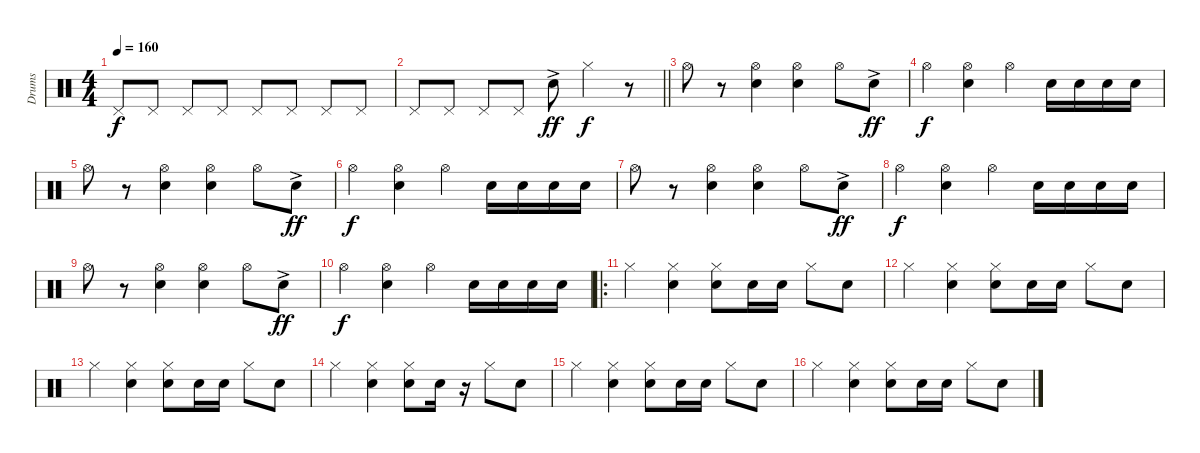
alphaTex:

\track ("Drums" "Drums") {instrument percussion}
\staff {score}
\articulation defaults
\ts (4 4)
\tempo 160
\clef neutral
\ks c "Pedal Hi-Hat (hit)".8{dy f} "Pedal Hi-Hat (hit)".8 "Pedal Hi-Hat (hit)".8 "Pedal Hi-Hat (hit)".8 "Pedal Hi-Hat (hit)".8 "Pedal Hi-Hat (hit)".8 "Pedal Hi-Hat (hit)".8 "Pedal Hi-Hat (hit)".8
|
\barLineRight lightlight "Pedal Hi-Hat (hit)".8 "Pedal Hi-Hat (hit)".8 "Pedal Hi-Hat (hit)".8 "Pedal Hi-Hat (hit)".8 "Electric Snare (hit)"{ac}.8{dy ff} "Hi-Hat (closed)".4{dy f}
r.8 |
"Hi-Hat (open)".8 r.8 ("Hi-Hat (open)" "Electric Snare (hit)").4 ("Hi-Hat (open)" "Electric Snare (hit)").4 "Hi-Hat (open)".8 "Electric Snare (hit)"{ac}.8{dy ff} |
"Hi-Hat (open)".4{dy f} ("Hi-Hat (open)" "Electric Snare (hit)").4 "Hi-Hat (open)".4 "Electric Snare (hit)".16 "Electric Snare (hit)".16 "Electric Snare (hit)".16 "Electric Snare (hit)".16 |
"Hi-Hat (open)".8 r.8 ("Hi-Hat (open)" "Electric Snare (hit)").4 ("Hi-Hat (open)" "Electric Snare (hit)").4 "Hi-Hat (open)".8 "Electric Snare (hit)"{ac}.8{dy ff} |
"Hi-Hat (open)".4{dy f} ("Hi-Hat (open)" "Electric Snare (hit)").4 "Hi-Hat (open)".4 "Electric Snare (hit)".16 "Electric Snare (hit)".16 "Electric Snare (hit)".16 "Electric Snare (hit)".16 |
"Hi-Hat (open)".8 r.8 ("Hi-Hat (open)" "Electric Snare (hit)").4 ("Hi-Hat (open)" "Electric Snare (hit)").4 "Hi-Hat (open)".8 "Electric Snare (hit)"{ac}.8{dy ff} |
"Hi-Hat (open)".4{dy f} ("Hi-Hat (open)" "Electric Snare (hit)").4 "Hi-Hat (open)".4 "Electric Snare (hit)".16 "Electric Snare (hit)".16 "Electric Snare (hit)".16 "Electric Snare (hit)".16 |
"Hi-Hat (open)".8 r.8 ("Hi-Hat (open)" "Electric Snare (hit)").4 ("Hi-Hat (open)" "Electric Snare (hit)").4 "Hi-Hat (open)".8 "Electric Snare (hit)"{ac}.8{dy ff} |
"Hi-Hat (open)".4{dy f} ("Hi-Hat (open)" "Electric Snare (hit)").4 "Hi-Hat (open)".4 "Electric Snare (hit)".16 "Electric Snare (hit)".16 "Electric Snare (hit)".16 "Electric Snare (hit)".16 |
\ro "Hi-Hat (closed)".4
("Hi-Hat (closed)" "Electric Snare (hit)").4 ("Hi-Hat (closed)" "Electric Snare (hit)").8 "Electric Snare (hit)".16 "Electric Snare (hit)".16 "Hi-Hat (closed)".8 "Electric Snare (hit)".8 |
"Hi-Hat (closed)".4 ("Hi-Hat (closed)" "Electric Snare (hit)").4 ("Hi-Hat (closed)" "Electric Snare (hit)").8 "Electric Snare (hit)".16 "Electric Snare (hit)".16 "Hi-Hat (closed)".8 "Electric Snare (hit)".8 |
"Hi-Hat (closed)".4 ("Hi-Hat (closed)" "Electric Snare (hit)").4 ("Hi-Hat (closed)" "Electric Snare (hit)").8 "Electric Snare (hit)".16 "Electric Snare (hit)".16 "Hi-Hat (closed)".8 "Electric Snare (hit)".8 |
"Hi-Hat (closed)".4 ("Hi-Hat (closed)" "Electric Snare (hit)").4 ("Hi-Hat (closed)" "Electric Snare (hit)").8 "Electric Snare (hit)".16 r.16 "Hi-Hat (closed)".8 "Electric Snare (hit)".8 |
"Hi-Hat (closed)".4 ("Hi-Hat (closed)" "Electric Snare (hit)").4 ("Hi-Hat (closed)" "Electric Snare (hit)").8 "Electric Snare (hit)".16 "Electric Snare (hit)".16 "Hi-Hat (closed)".8 "Electric Snare (hit)".8 |
"Hi-Hat (closed)".4 ("Hi-Hat (closed)" "Electric Snare (hit)").4 ("Hi-Hat (closed)" "Electric Snare (hit)").8 "Electric Snare (hit)".16 "Electric Snare (hit)".16 "Hi-Hat (closed)".8 "Electric Snare (hit)".8
